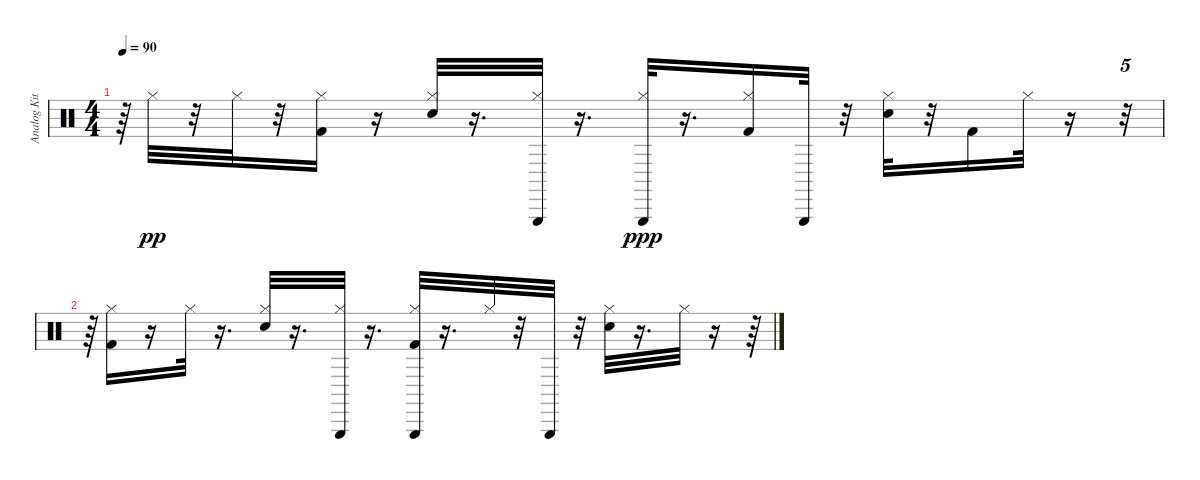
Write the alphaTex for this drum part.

\track ("Analog Kit" "Analog Kit") {instrument percussion}
\staff {score}
\articulation defaults
\ts (4 4)
\tempo 90
\clef neutral
\ks c
r.64{dy pp} "Hi-Hat (closed)".32 r.32 "Hi-Hat (closed)".32 r.32 ("Hi-Hat (closed)" "Kick (hit) 2").16 r.16 ("Electric Snare (hit)" "Hi-Hat (closed)").32 r.16{d} ("Hi-Hat (closed)" "Triangle (hit)").32 r.16{d} ("Hi-Hat (closed)" "Triangle (hit)").32{dy ppp} r.16{d} ("Kick (hit) 2" "Hi-Hat (closed)").16 "Triangle (hit)".32 r.32 ("Electric Snare (hit)" "Hi-Hat (closed)").32 r.32 "Kick (hit) 2".16 "Hi-Hat (closed)".32 r.16 r.32{tu (5 4)} |
r.64 ("Hi-Hat (closed)" "Kick (hit) 2").16 r.16 "Hi-Hat (closed)".32 r.16{d} ("Electric Snare (hit)" "Hi-Hat (closed)").32 r.16{d} ("Triangle (hit)" "Hi-Hat (closed)").32 r.16{d} ("Kick (hit) 2" "Hi-Hat (closed)" "Triangle (hit)").32 r.16{d} "Hi-Hat (closed)".32 r.32 "Triangle (hit)".32 r.32 ("Electric Snare (hit)" "Hi-Hat (closed)").32 r.16{d} "Hi-Hat (closed)".32 r.16 r.64
